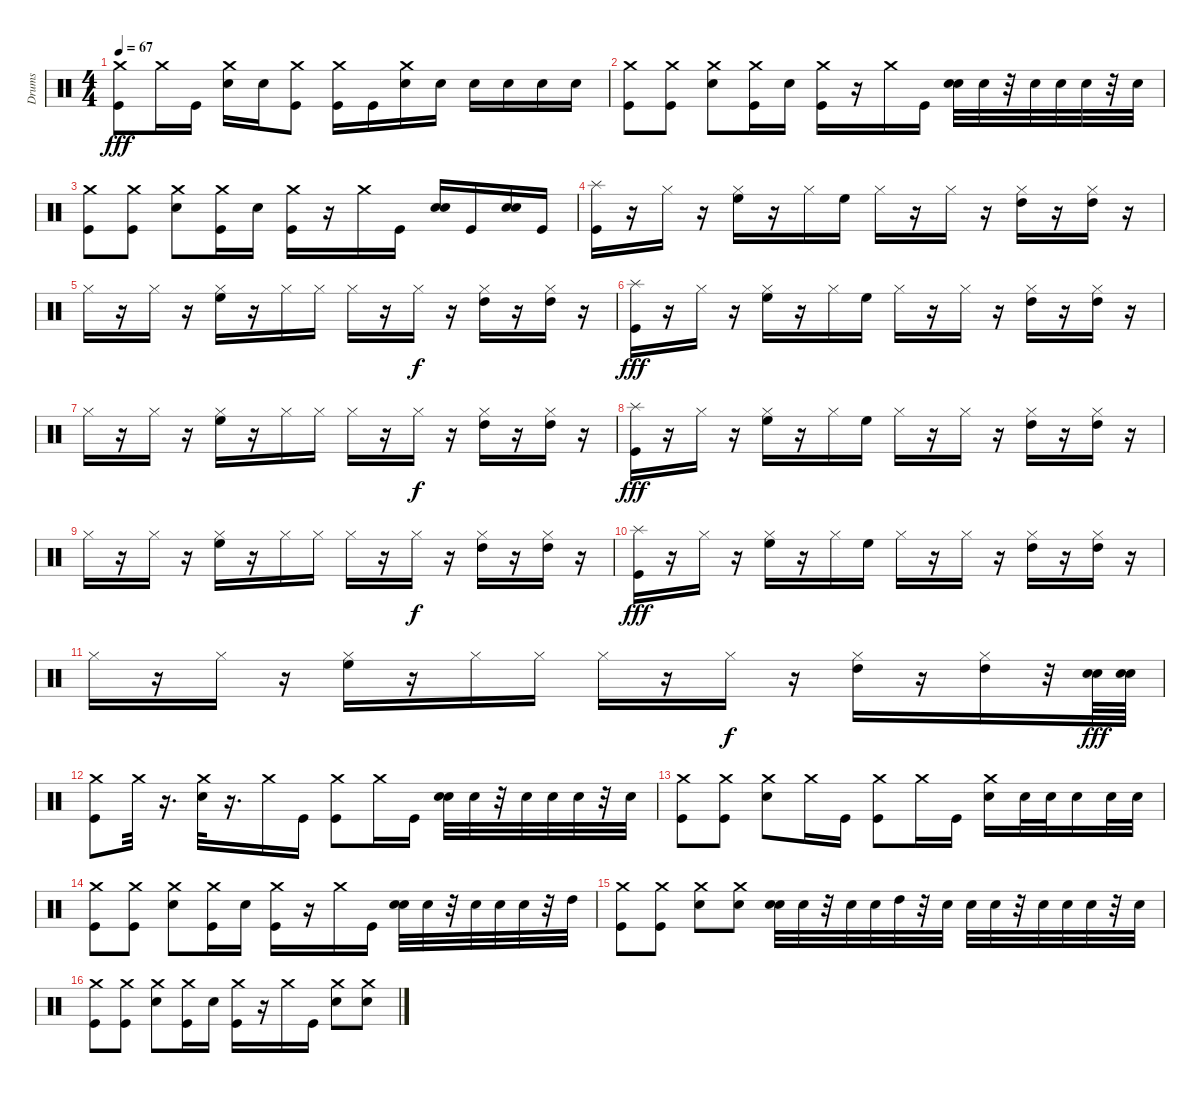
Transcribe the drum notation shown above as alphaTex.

\track ("Drums" "Drums") {instrument percussion}
\staff {score}
\articulation defaults
\ts (4 4)
\tempo 67
\clef neutral
\ks c
("Kick (hit)" "Crash medium (hit)").8{dy fff} "Crash medium (hit)".16 "Kick (hit)".16 ("Crash medium (hit)" "Snare (hit) 2").16 "Snare (hit) 2".16 ("Kick (hit)" "Crash medium (hit)").8 ("Kick (hit)" "Crash medium (hit)").16 "Kick (hit)".16 ("Snare (hit) 2" "Crash medium (hit)").16 "Snare (hit) 2".16 "Snare (hit) 2".16 "Snare (hit) 2".16 "Snare (hit) 2".16 "Snare (hit) 2".16 |
("Crash medium (hit)" "Kick (hit)").8 ("Crash medium (hit)" "Kick (hit)").8 ("Crash medium (hit)" "Snare (hit) 2").8 ("Crash medium (hit)" "Kick (hit)").16 "Snare (hit) 2".16 ("Crash medium (hit)" "Kick (hit)").16 r.16 "Crash medium (hit)".16 "Kick (hit)".16 ("Snare (hit) 2" "Snare (hit) 2").32 "Snare (hit) 2".32 r.32 "Snare (hit) 2".32 "Snare (hit) 2".32 "Snare (hit) 2".32 r.32 "Snare (hit) 2".32 |
("Crash medium (hit)" "Kick (hit)").8 ("Crash medium (hit)" "Kick (hit)").8 ("Snare (hit) 2" "Crash medium (hit)").8 ("Crash medium (hit)" "Kick (hit)").16 "Snare (hit) 2".16 ("Crash medium (hit)" "Kick (hit)").16 r.16 "Crash medium (hit)".16 "Kick (hit)".16 ("Snare (hit) 2" "Snare (hit) 2").16 "Kick (hit)".16 ("Snare (hit) 2" "Snare (hit) 2").16 "Kick (hit)".16 |
("Splash (hit)" "Kick (hit)").16 r.16 "Hi-Hat (closed)".16 r.16 ("Hi-Hat (closed)" "High Floor Tom (hit)").16 r.16 "Hi-Hat (closed)".16 "High Floor Tom (hit)".16 "Hi-Hat (closed)".16 r.16 "Hi-Hat (closed)".16 r.16 ("High Tom (hit)" "Hi-Hat (closed)").16 r.16 ("High Tom (hit)" "Hi-Hat (closed)").16 r.16 |
"Hi-Hat (closed)".16 r.16 "Hi-Hat (closed)".16 r.16 ("Hi-Hat (closed)" "High Floor Tom (hit)").16 r.16 "Hi-Hat (closed)".16 "Hi-Hat (closed)".16 "Hi-Hat (closed)".16 r.16 "Hi-Hat (closed)".16{dy f} r.16 ("High Tom (hit)" "Hi-Hat (closed)").16 r.16 ("High Tom (hit)" "Hi-Hat (closed)").16 r.16 |
("Splash (hit)" "Kick (hit)").16{dy fff} r.16 "Hi-Hat (closed)".16 r.16 ("Hi-Hat (closed)" "High Floor Tom (hit)").16 r.16 "Hi-Hat (closed)".16 "High Floor Tom (hit)".16 "Hi-Hat (closed)".16 r.16 "Hi-Hat (closed)".16 r.16 ("High Tom (hit)" "Hi-Hat (closed)").16 r.16 ("High Tom (hit)" "Hi-Hat (closed)").16 r.16 |
"Hi-Hat (closed)".16 r.16 "Hi-Hat (closed)".16 r.16 ("Hi-Hat (closed)" "High Floor Tom (hit)").16 r.16 "Hi-Hat (closed)".16 "Hi-Hat (closed)".16 "Hi-Hat (closed)".16 r.16 "Hi-Hat (closed)".16{dy f} r.16 ("High Tom (hit)" "Hi-Hat (closed)").16 r.16 ("High Tom (hit)" "Hi-Hat (closed)").16 r.16 |
("Splash (hit)" "Kick (hit)").16{dy fff} r.16 "Hi-Hat (closed)".16 r.16 ("Hi-Hat (closed)" "High Floor Tom (hit)").16 r.16 "Hi-Hat (closed)".16 "High Floor Tom (hit)".16 "Hi-Hat (closed)".16 r.16 "Hi-Hat (closed)".16 r.16 ("High Tom (hit)" "Hi-Hat (closed)").16 r.16 ("High Tom (hit)" "Hi-Hat (closed)").16 r.16 |
"Hi-Hat (closed)".16 r.16 "Hi-Hat (closed)".16 r.16 ("Hi-Hat (closed)" "High Floor Tom (hit)").16 r.16 "Hi-Hat (closed)".16 "Hi-Hat (closed)".16 "Hi-Hat (closed)".16 r.16 "Hi-Hat (closed)".16{dy f} r.16 ("High Tom (hit)" "Hi-Hat (closed)").16 r.16 ("High Tom (hit)" "Hi-Hat (closed)").16 r.16 |
("Splash (hit)" "Kick (hit)").16{dy fff} r.16 "Hi-Hat (closed)".16 r.16 ("Hi-Hat (closed)" "High Floor Tom (hit)").16 r.16 "Hi-Hat (closed)".16 "High Floor Tom (hit)".16 "Hi-Hat (closed)".16 r.16 "Hi-Hat (closed)".16 r.16 ("High Tom (hit)" "Hi-Hat (closed)").16 r.16 ("High Tom (hit)" "Hi-Hat (closed)").16 r.16 |
"Hi-Hat (closed)".16 r.16 "Hi-Hat (closed)".16 r.16 ("Hi-Hat (closed)" "High Floor Tom (hit)").16 r.16 "Hi-Hat (closed)".16 "Hi-Hat (closed)".16 "Hi-Hat (closed)".16 r.16 "Hi-Hat (closed)".16{dy f} r.16 ("High Tom (hit)" "Hi-Hat (closed)").16 r.16 ("High Tom (hit)" "Hi-Hat (closed)").16 r.32 ("Electric Snare (hit)" "Electric Snare (hit)").64{dy fff} ("Electric Snare (hit)" "Electric Snare (hit)").64 |
("Kick (hit)" "Crash medium (hit)").8 "Crash medium (hit)".32 r.16{d} ("Snare (hit) 2" "Crash medium (hit)").32 r.16{d} "Crash medium (hit)".16 "Kick (hit)".16 ("Kick (hit)" "Crash medium (hit)").8 "Crash medium (hit)".16 "Kick (hit)".16 ("Snare (hit) 2" "Snare (hit) 2").32 "Snare (hit) 2".32 r.32 "Snare (hit) 2".32 "Snare (hit) 2".32 "Snare (hit) 2".32 r.32 "Snare (hit) 2".32 |
("Crash medium (hit)" "Kick (hit)").8 ("Crash medium (hit)" "Kick (hit)").8 ("Snare (hit) 2" "Crash medium (hit)").8 "Crash medium (hit)".16 "Kick (hit)".16 ("Kick (hit)" "Crash medium (hit)").8 "Crash medium (hit)".16 "Kick (hit)".16 ("Crash medium (hit)" "Snare (hit) 2").16 "Snare (hit) 2".32 "Snare (hit) 2".32 "Snare (hit) 2".16 "Snare (hit) 2".32 "Snare (hit) 2".32 |
("Crash medium (hit)" "Kick (hit)").8 ("Crash medium (hit)" "Kick (hit)").8 ("Crash medium (hit)" "Snare (hit) 2").8 ("Crash medium (hit)" "Kick (hit)").16 "Snare (hit) 2".16 ("Crash medium (hit)" "Kick (hit)").16 r.16 "Crash medium (hit)".16 "Kick (hit)".16 ("Snare (hit) 2" "Snare (hit) 2").32 "Snare (hit) 2".32 r.32 "Snare (hit) 2".32 "Snare (hit) 2".32 "Snare (hit) 2".32 r.32 "High Tom (hit)".32 |
("Crash medium (hit)" "Kick (hit)").8 ("Crash medium (hit)" "Kick (hit)").8 ("Snare (hit) 2" "Crash medium (hit)").8 ("Crash medium (hit)" "Snare (hit) 2").8 ("Snare (hit) 2" "Snare (hit) 2").32 "Snare (hit) 2".32 r.32 "Snare (hit) 2".32 "Snare (hit) 2".32 "High Tom (hit)".32 r.32 "Snare (hit) 2".32 "Snare (hit) 2".32 "Snare (hit) 2".32 r.32 "Snare (hit) 2".32 "Snare (hit) 2".32 "Snare (hit) 2".32 r.32 "Snare (hit) 2".32 |
("Crash medium (hit)" "Kick (hit)").8 ("Crash medium (hit)" "Kick (hit)").8 ("Snare (hit) 2" "Crash medium (hit)").8 ("Crash medium (hit)" "Kick (hit)").16 "Snare (hit) 2".16 ("Kick (hit)" "Crash medium (hit)").16 r.16 "Crash medium (hit)".16 "Kick (hit)".16 ("Crash medium (hit)" "Snare (hit) 2").8 ("Crash medium (hit)" "Snare (hit) 2").8
